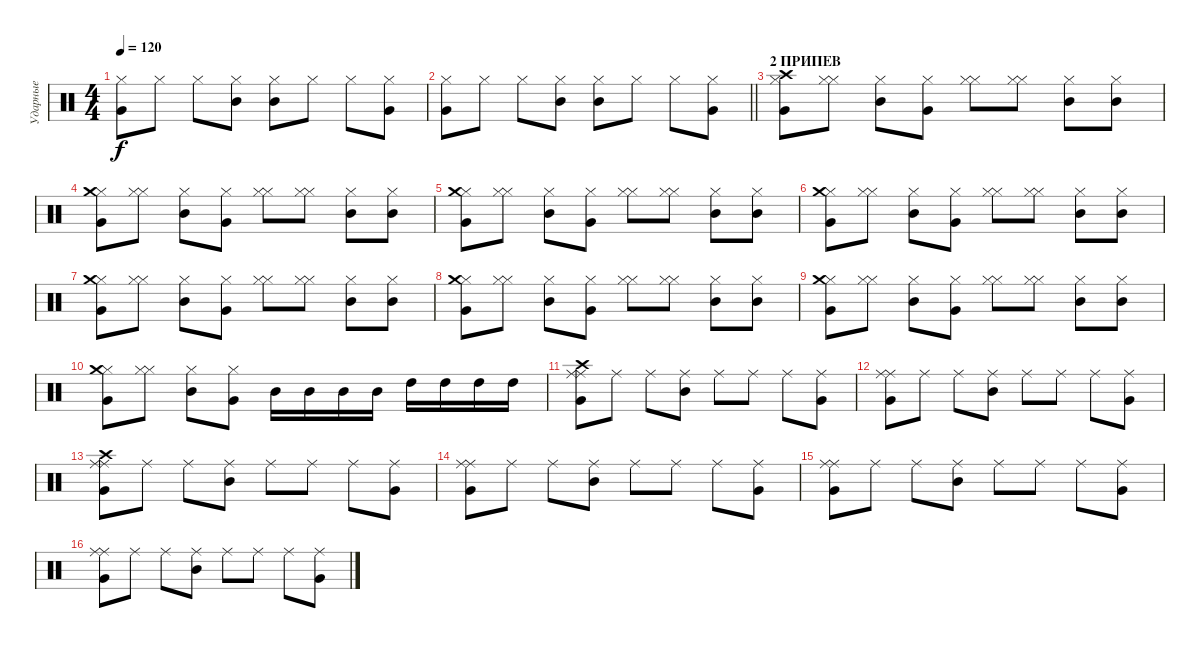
\track ("Ударные" "Ударные") {instrument percussion}
\staff {score}
\articulation defaults
\ts (4 4)
\tempo 120
\clef neutral
\ks c
("Hi-Hat (closed)" "Very Low Tom (hit)").8{dy f} "Hi-Hat (closed)".8 "Hi-Hat (closed)".8 ("Hi-Hat (closed)" "Mid Tom (hit)").8 ("Hi-Hat (closed)" "Mid Tom (hit)").8 "Hi-Hat (closed)".8 "Hi-Hat (closed)".8 ("Hi-Hat (closed)" "Very Low Tom (hit)").8 |
\barLineRight lightlight
("Hi-Hat (closed)" "Very Low Tom (hit)").8 "Hi-Hat (closed)".8 "Hi-Hat (closed)".8 ("Hi-Hat (closed)" "Mid Tom (hit)").8 ("Hi-Hat (closed)" "Mid Tom (hit)").8 "Hi-Hat (closed)".8 "Hi-Hat (closed)".8 ("Hi-Hat (closed)" "Very Low Tom (hit)").8 |
\section ("" "2 ПРИПЕВ")
("Hi-Hat (closed)" "Crash high (hit)" "Very Low Tom (hit)").8 ("Hi-Hat (closed)" "Hi-Hat (closed)").8 ("Hi-Hat (closed)" "Mid Tom (hit)").8 ("Hi-Hat (closed)" "Very Low Tom (hit)").8 ("Hi-Hat (closed)" "Hi-Hat (closed)").8 ("Hi-Hat (closed)" "Hi-Hat (closed)").8 ("Hi-Hat (closed)" "Mid Tom (hit)").8 ("Hi-Hat (closed)" "Mid Tom (hit)").8 |
("Hi-Hat (closed)" "Crash medium (hit)" "Very Low Tom (hit)").8 ("Hi-Hat (closed)" "Hi-Hat (closed)").8 ("Hi-Hat (closed)" "Mid Tom (hit)").8 ("Hi-Hat (closed)" "Very Low Tom (hit)").8 ("Hi-Hat (closed)" "Hi-Hat (closed)").8 ("Hi-Hat (closed)" "Hi-Hat (closed)").8 ("Hi-Hat (closed)" "Mid Tom (hit)").8 ("Hi-Hat (closed)" "Mid Tom (hit)").8 |
("Hi-Hat (closed)" "Crash medium (hit)" "Very Low Tom (hit)").8 ("Hi-Hat (closed)" "Hi-Hat (closed)").8 ("Hi-Hat (closed)" "Mid Tom (hit)").8 ("Hi-Hat (closed)" "Very Low Tom (hit)").8 ("Hi-Hat (closed)" "Hi-Hat (closed)").8 ("Hi-Hat (closed)" "Hi-Hat (closed)").8 ("Hi-Hat (closed)" "Mid Tom (hit)").8 ("Hi-Hat (closed)" "Mid Tom (hit)").8 |
("Hi-Hat (closed)" "Crash medium (hit)" "Very Low Tom (hit)").8 ("Hi-Hat (closed)" "Hi-Hat (closed)").8 ("Hi-Hat (closed)" "Mid Tom (hit)").8 ("Hi-Hat (closed)" "Very Low Tom (hit)").8 ("Hi-Hat (closed)" "Hi-Hat (closed)").8 ("Hi-Hat (closed)" "Hi-Hat (closed)").8 ("Hi-Hat (closed)" "Mid Tom (hit)").8 ("Hi-Hat (closed)" "Mid Tom (hit)").8 |
("Hi-Hat (closed)" "Crash medium (hit)" "Very Low Tom (hit)").8 ("Hi-Hat (closed)" "Hi-Hat (closed)").8 ("Hi-Hat (closed)" "Mid Tom (hit)").8 ("Hi-Hat (closed)" "Very Low Tom (hit)").8 ("Hi-Hat (closed)" "Hi-Hat (closed)").8 ("Hi-Hat (closed)" "Hi-Hat (closed)").8 ("Hi-Hat (closed)" "Mid Tom (hit)").8 ("Hi-Hat (closed)" "Mid Tom (hit)").8 |
("Hi-Hat (closed)" "Crash medium (hit)" "Very Low Tom (hit)").8 ("Hi-Hat (closed)" "Hi-Hat (closed)").8 ("Hi-Hat (closed)" "Mid Tom (hit)").8 ("Hi-Hat (closed)" "Very Low Tom (hit)").8 ("Hi-Hat (closed)" "Hi-Hat (closed)").8 ("Hi-Hat (closed)" "Hi-Hat (closed)").8 ("Hi-Hat (closed)" "Mid Tom (hit)").8 ("Hi-Hat (closed)" "Mid Tom (hit)").8 |
("Hi-Hat (closed)" "Crash medium (hit)" "Very Low Tom (hit)").8 ("Hi-Hat (closed)" "Hi-Hat (closed)").8 ("Hi-Hat (closed)" "Mid Tom (hit)").8 ("Hi-Hat (closed)" "Very Low Tom (hit)").8 ("Hi-Hat (closed)" "Hi-Hat (closed)").8 ("Hi-Hat (closed)" "Hi-Hat (closed)").8 ("Hi-Hat (closed)" "Mid Tom (hit)").8 ("Hi-Hat (closed)" "Mid Tom (hit)").8 |
("Hi-Hat (closed)" "Crash medium (hit)" "Very Low Tom (hit)").8 ("Hi-Hat (closed)" "Hi-Hat (closed)").8 ("Hi-Hat (closed)" "Mid Tom (hit)").8 ("Hi-Hat (closed)" "Very Low Tom (hit)").8 "Mid Tom (hit)".16 "Mid Tom (hit)".16 "Mid Tom (hit)".16 "Mid Tom (hit)".16 "High Tom (hit)".16 "High Tom (hit)".16 "High Tom (hit)".16 "High Tom (hit)".16 |
("Crash high (hit)" "Ride (middle)" "Ride (middle)" "Very Low Tom (hit)").8 "Ride (middle)".8 "Ride (middle)".8 ("Ride (middle)" "Mid Tom (hit)").8 "Ride (middle)".8 "Ride (middle)".8 "Ride (middle)".8 ("Ride (middle)" "Very Low Tom (hit)").8 |
("Ride (middle)" "Ride (middle)" "Very Low Tom (hit)").8 "Ride (middle)".8 "Ride (middle)".8 ("Ride (middle)" "Mid Tom (hit)").8 "Ride (middle)".8 "Ride (middle)".8 "Ride (middle)".8 ("Ride (middle)" "Very Low Tom (hit)").8 |
("Crash high (hit)" "Ride (middle)" "Ride (middle)" "Very Low Tom (hit)").8 "Ride (middle)".8 "Ride (middle)".8 ("Ride (middle)" "Mid Tom (hit)").8 "Ride (middle)".8 "Ride (middle)".8 "Ride (middle)".8 ("Ride (middle)" "Very Low Tom (hit)").8 |
("Ride (middle)" "Ride (middle)" "Very Low Tom (hit)").8 "Ride (middle)".8 "Ride (middle)".8 ("Ride (middle)" "Mid Tom (hit)").8 "Ride (middle)".8 "Ride (middle)".8 "Ride (middle)".8 ("Ride (middle)" "Very Low Tom (hit)").8 |
("Ride (middle)" "Ride (middle)" "Very Low Tom (hit)").8 "Ride (middle)".8 "Ride (middle)".8 ("Ride (middle)" "Mid Tom (hit)").8 "Ride (middle)".8 "Ride (middle)".8 "Ride (middle)".8 ("Ride (middle)" "Very Low Tom (hit)").8 |
("Ride (middle)" "Ride (middle)" "Very Low Tom (hit)").8 "Ride (middle)".8 "Ride (middle)".8 ("Ride (middle)" "Mid Tom (hit)").8 "Ride (middle)".8 "Ride (middle)".8 "Ride (middle)".8 ("Ride (middle)" "Very Low Tom (hit)").8
